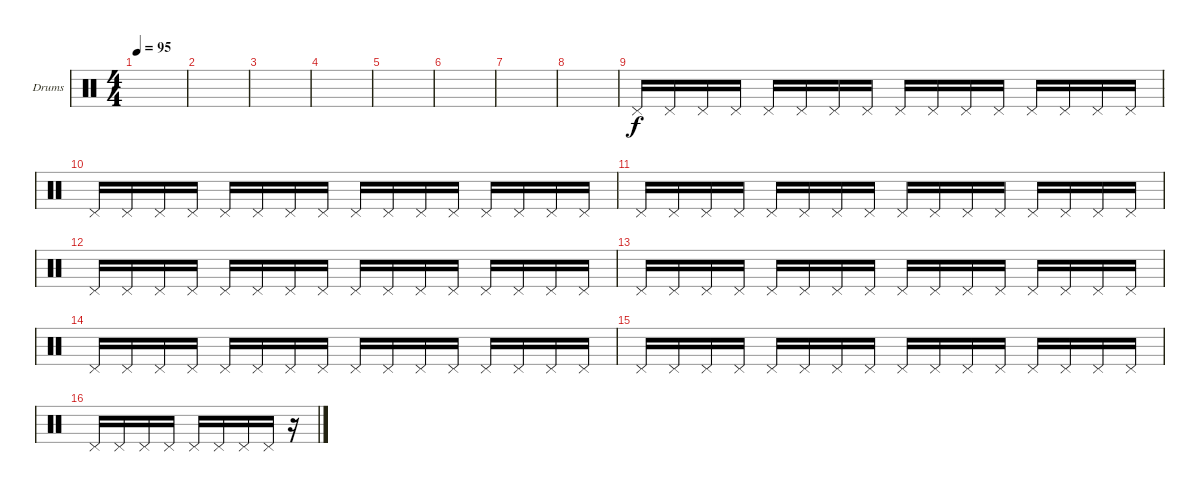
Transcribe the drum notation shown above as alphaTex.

\defaultSystemsLayout 4
\bracketExtendMode groupsimilarinstruments
\firstSystemTrackNameOrientation horizontal
\otherSystemsTrackNameOrientation horizontal
\track ("Drumkit" "Drums") {instrument percussion}
\staff {score}
\articulation defaults
\ts (4 4)
\tempo 95
\clef neutral
\ks c
|
|
|
|
|
|
|
|
"Pedal Hi-Hat (hit)".16 "Pedal Hi-Hat (hit)".16 "Pedal Hi-Hat (hit)".16 "Pedal Hi-Hat (hit)".16 "Pedal Hi-Hat (hit)".16 "Pedal Hi-Hat (hit)".16 "Pedal Hi-Hat (hit)".16 "Pedal Hi-Hat (hit)".16 "Pedal Hi-Hat (hit)".16 "Pedal Hi-Hat (hit)".16 "Pedal Hi-Hat (hit)".16 "Pedal Hi-Hat (hit)".16 "Pedal Hi-Hat (hit)".16 "Pedal Hi-Hat (hit)".16 "Pedal Hi-Hat (hit)".16 "Pedal Hi-Hat (hit)".16 |
"Pedal Hi-Hat (hit)".16 "Pedal Hi-Hat (hit)".16 "Pedal Hi-Hat (hit)".16 "Pedal Hi-Hat (hit)".16 "Pedal Hi-Hat (hit)".16 "Pedal Hi-Hat (hit)".16 "Pedal Hi-Hat (hit)".16 "Pedal Hi-Hat (hit)".16 "Pedal Hi-Hat (hit)".16 "Pedal Hi-Hat (hit)".16 "Pedal Hi-Hat (hit)".16 "Pedal Hi-Hat (hit)".16 "Pedal Hi-Hat (hit)".16 "Pedal Hi-Hat (hit)".16 "Pedal Hi-Hat (hit)".16 "Pedal Hi-Hat (hit)".16 |
"Pedal Hi-Hat (hit)".16 "Pedal Hi-Hat (hit)".16 "Pedal Hi-Hat (hit)".16 "Pedal Hi-Hat (hit)".16 "Pedal Hi-Hat (hit)".16 "Pedal Hi-Hat (hit)".16 "Pedal Hi-Hat (hit)".16 "Pedal Hi-Hat (hit)".16 "Pedal Hi-Hat (hit)".16 "Pedal Hi-Hat (hit)".16 "Pedal Hi-Hat (hit)".16 "Pedal Hi-Hat (hit)".16 "Pedal Hi-Hat (hit)".16 "Pedal Hi-Hat (hit)".16 "Pedal Hi-Hat (hit)".16 "Pedal Hi-Hat (hit)".16 |
"Pedal Hi-Hat (hit)".16 "Pedal Hi-Hat (hit)".16 "Pedal Hi-Hat (hit)".16 "Pedal Hi-Hat (hit)".16 "Pedal Hi-Hat (hit)".16 "Pedal Hi-Hat (hit)".16 "Pedal Hi-Hat (hit)".16 "Pedal Hi-Hat (hit)".16 "Pedal Hi-Hat (hit)".16 "Pedal Hi-Hat (hit)".16 "Pedal Hi-Hat (hit)".16 "Pedal Hi-Hat (hit)".16 "Pedal Hi-Hat (hit)".16 "Pedal Hi-Hat (hit)".16 "Pedal Hi-Hat (hit)".16 "Pedal Hi-Hat (hit)".16 |
"Pedal Hi-Hat (hit)".16 "Pedal Hi-Hat (hit)".16 "Pedal Hi-Hat (hit)".16 "Pedal Hi-Hat (hit)".16 "Pedal Hi-Hat (hit)".16 "Pedal Hi-Hat (hit)".16 "Pedal Hi-Hat (hit)".16 "Pedal Hi-Hat (hit)".16 "Pedal Hi-Hat (hit)".16 "Pedal Hi-Hat (hit)".16 "Pedal Hi-Hat (hit)".16 "Pedal Hi-Hat (hit)".16 "Pedal Hi-Hat (hit)".16 "Pedal Hi-Hat (hit)".16 "Pedal Hi-Hat (hit)".16 "Pedal Hi-Hat (hit)".16 |
"Pedal Hi-Hat (hit)".16 "Pedal Hi-Hat (hit)".16 "Pedal Hi-Hat (hit)".16 "Pedal Hi-Hat (hit)".16 "Pedal Hi-Hat (hit)".16 "Pedal Hi-Hat (hit)".16 "Pedal Hi-Hat (hit)".16 "Pedal Hi-Hat (hit)".16 "Pedal Hi-Hat (hit)".16 "Pedal Hi-Hat (hit)".16 "Pedal Hi-Hat (hit)".16 "Pedal Hi-Hat (hit)".16 "Pedal Hi-Hat (hit)".16 "Pedal Hi-Hat (hit)".16 "Pedal Hi-Hat (hit)".16 "Pedal Hi-Hat (hit)".16 |
"Pedal Hi-Hat (hit)".16 "Pedal Hi-Hat (hit)".16 "Pedal Hi-Hat (hit)".16 "Pedal Hi-Hat (hit)".16 "Pedal Hi-Hat (hit)".16 "Pedal Hi-Hat (hit)".16 "Pedal Hi-Hat (hit)".16 "Pedal Hi-Hat (hit)".16 "Pedal Hi-Hat (hit)".16 "Pedal Hi-Hat (hit)".16 "Pedal Hi-Hat (hit)".16 "Pedal Hi-Hat (hit)".16 "Pedal Hi-Hat (hit)".16 "Pedal Hi-Hat (hit)".16 "Pedal Hi-Hat (hit)".16 "Pedal Hi-Hat (hit)".16 |
"Pedal Hi-Hat (hit)".16 "Pedal Hi-Hat (hit)".16 "Pedal Hi-Hat (hit)".16 "Pedal Hi-Hat (hit)".16 "Pedal Hi-Hat (hit)".16 "Pedal Hi-Hat (hit)".16 "Pedal Hi-Hat (hit)".16 "Pedal Hi-Hat (hit)".16 r.16
